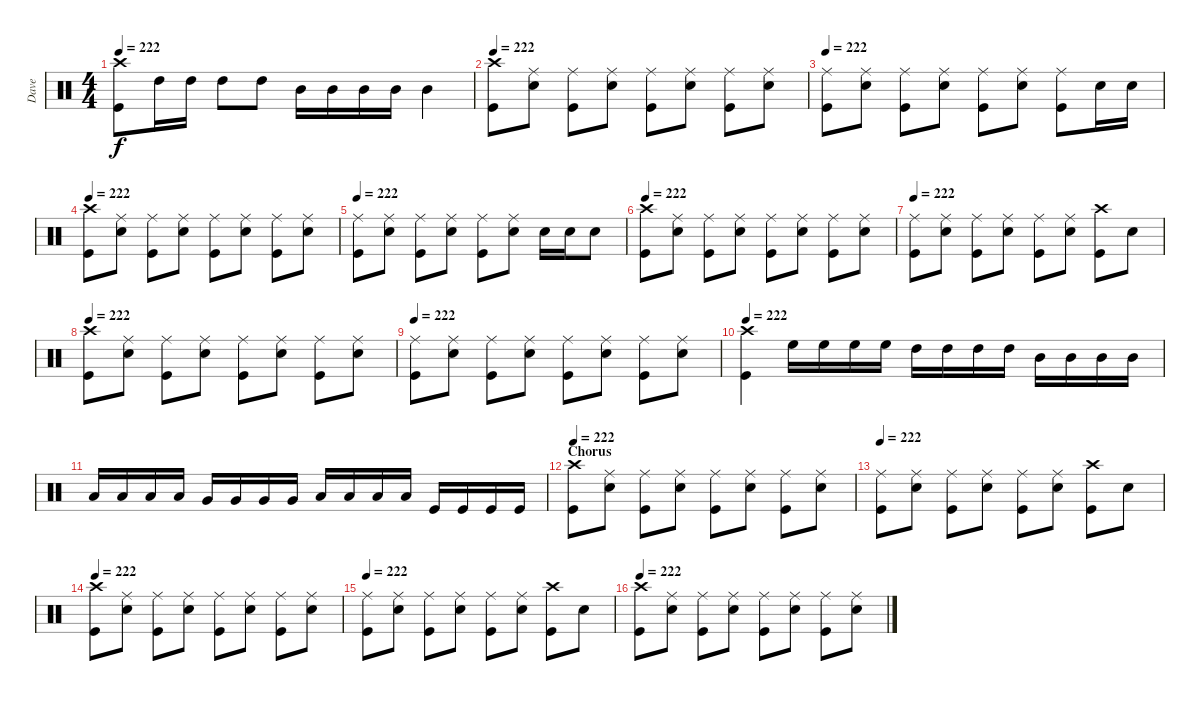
\track ("Dave" "Dave") {instrument percussion}
\staff {score}
\articulation defaults
\ts (4 4)
\tempo 222
\clef neutral
\ks c
("Crash high (hit)" "Kick (hit)").8{dy f} "High Tom (hit)".16 "High Tom (hit)".16 "High Tom (hit)".8 "High Tom (hit)".8 "Mid Tom (hit)".16 "Mid Tom (hit)".16 "Mid Tom (hit)".16 "Mid Tom (hit)".16 "Mid Tom (hit)".4 |
\tempo 222
("Crash high (hit)" "Kick (hit)").8 ("Ride (middle)" "Snare (hit) 2").8 ("Ride (middle)" "Kick (hit)").8 ("Ride (middle)" "Snare (hit) 2").8 ("Ride (middle)" "Kick (hit)").8 ("Ride (middle)" "Snare (hit) 2").8 ("Ride (middle)" "Kick (hit)").8 ("Ride (middle)" "Snare (hit) 2").8 |
\tempo 222
("Ride (middle)" "Kick (hit)").8 ("Ride (middle)" "Snare (hit) 2").8 ("Ride (middle)" "Kick (hit)").8 ("Ride (middle)" "Snare (hit) 2").8 ("Ride (middle)" "Kick (hit)").8 ("Ride (middle)" "Snare (hit) 2").8 ("Ride (middle)" "Kick (hit)").8 "Snare (hit) 2".16 "Snare (hit) 2".16 |
\tempo 222
("Crash high (hit)" "Kick (hit)").8 ("Ride (middle)" "Snare (hit) 2").8 ("Ride (middle)" "Kick (hit)").8 ("Ride (middle)" "Snare (hit) 2").8 ("Ride (middle)" "Kick (hit)").8 ("Ride (middle)" "Snare (hit) 2").8 ("Ride (middle)" "Kick (hit)").8 ("Ride (middle)" "Snare (hit) 2").8 |
\tempo 222
("Ride (middle)" "Kick (hit)").8 ("Ride (middle)" "Snare (hit) 2").8 ("Ride (middle)" "Kick (hit)").8 ("Ride (middle)" "Snare (hit) 2").8 ("Ride (middle)" "Kick (hit)").8 ("Ride (middle)" "Snare (hit) 2").8 "Snare (hit) 2".16 "Snare (hit) 2".16 "Snare (hit) 2".8 |
\tempo 222
("Crash high (hit)" "Kick (hit)").8 ("Ride (middle)" "Snare (hit) 2").8 ("Ride (middle)" "Kick (hit)").8 ("Ride (middle)" "Snare (hit) 2").8 ("Ride (middle)" "Kick (hit)").8 ("Ride (middle)" "Snare (hit) 2").8 ("Ride (middle)" "Kick (hit)").8 ("Ride (middle)" "Snare (hit) 2").8 |
\tempo 222
("Ride (middle)" "Kick (hit)").8 ("Ride (middle)" "Snare (hit) 2").8 ("Ride (middle)" "Kick (hit)").8 ("Ride (middle)" "Snare (hit) 2").8 ("Ride (middle)" "Kick (hit)").8 ("Ride (middle)" "Snare (hit) 2").8 ("Crash high (hit)" "Kick (hit)").8 "Snare (hit) 2".8 |
\tempo 222
("Crash high (hit)" "Kick (hit)").8 ("Ride (middle)" "Snare (hit) 2").8 ("Ride (middle)" "Kick (hit)").8 ("Ride (middle)" "Snare (hit) 2").8 ("Ride (middle)" "Kick (hit)").8 ("Ride (middle)" "Snare (hit) 2").8 ("Ride (middle)" "Kick (hit)").8 ("Ride (middle)" "Snare (hit) 2").8 |
\tempo 222
("Ride (middle)" "Kick (hit)").8 ("Ride (middle)" "Snare (hit) 2").8 ("Ride (middle)" "Kick (hit)").8 ("Ride (middle)" "Snare (hit) 2").8 ("Ride (middle)" "Kick (hit)").8 ("Ride (middle)" "Snare (hit) 2").8 ("Ride (middle)" "Kick (hit)").8 ("Ride (middle)" "Snare (hit) 2").8 |
\tempo 222
("Crash high (hit)" "Kick (hit)").4 "High Floor Tom (hit)".16 "High Floor Tom (hit)".16 "High Floor Tom (hit)".16 "High Floor Tom (hit)".16 "High Tom (hit)".16 "High Tom (hit)".16 "High Tom (hit)".16 "High Tom (hit)".16 "Mid Tom (hit)".16 "Mid Tom (hit)".16 "Mid Tom (hit)".16 "Mid Tom (hit)".16 |
"Low Tom (hit)".16 "Low Tom (hit)".16 "Low Tom (hit)".16 "Low Tom (hit)".16 "Very Low Tom (hit)".16 "Very Low Tom (hit)".16 "Very Low Tom (hit)".16 "Very Low Tom (hit)".16 "Low Floor Tom (hit)".16 "Low Floor Tom (hit)".16 "Low Floor Tom (hit)".16 "Low Floor Tom (hit)".16 "Kick (hit)".16 "Kick (hit)".16 "Kick (hit)".16 "Kick (hit)".16 |
\section ("" "Chorus")
\tempo 222
("Crash high (hit)" "Kick (hit)").8 ("Ride (middle)" "Snare (hit) 2").8 ("Ride (middle)" "Kick (hit)").8 ("Ride (middle)" "Snare (hit) 2").8 ("Ride (middle)" "Kick (hit)").8 ("Ride (middle)" "Snare (hit) 2").8 ("Ride (middle)" "Kick (hit)").8 ("Ride (middle)" "Snare (hit) 2").8 |
\tempo 222
("Ride (middle)" "Kick (hit)").8 ("Ride (middle)" "Snare (hit) 2").8 ("Ride (middle)" "Kick (hit)").8 ("Ride (middle)" "Snare (hit) 2").8 ("Ride (middle)" "Kick (hit)").8 ("Ride (middle)" "Snare (hit) 2").8 ("Crash high (hit)" "Kick (hit)").8 "Snare (hit) 2".8 |
\tempo 222
("Crash high (hit)" "Kick (hit)").8 ("Ride (middle)" "Snare (hit) 2").8 ("Ride (middle)" "Kick (hit)").8 ("Ride (middle)" "Snare (hit) 2").8 ("Ride (middle)" "Kick (hit)").8 ("Ride (middle)" "Snare (hit) 2").8 ("Ride (middle)" "Kick (hit)").8 ("Ride (middle)" "Snare (hit) 2").8 |
\tempo 222
("Ride (middle)" "Kick (hit)").8 ("Ride (middle)" "Snare (hit) 2").8 ("Ride (middle)" "Kick (hit)").8 ("Ride (middle)" "Snare (hit) 2").8 ("Ride (middle)" "Kick (hit)").8 ("Ride (middle)" "Snare (hit) 2").8 ("Crash high (hit)" "Kick (hit)").8 "Snare (hit) 2".8 |
\tempo 222
("Crash high (hit)" "Kick (hit)").8 ("Ride (middle)" "Snare (hit) 2").8 ("Ride (middle)" "Kick (hit)").8 ("Ride (middle)" "Snare (hit) 2").8 ("Ride (middle)" "Kick (hit)").8 ("Ride (middle)" "Snare (hit) 2").8 ("Ride (middle)" "Kick (hit)").8 ("Ride (middle)" "Snare (hit) 2").8
